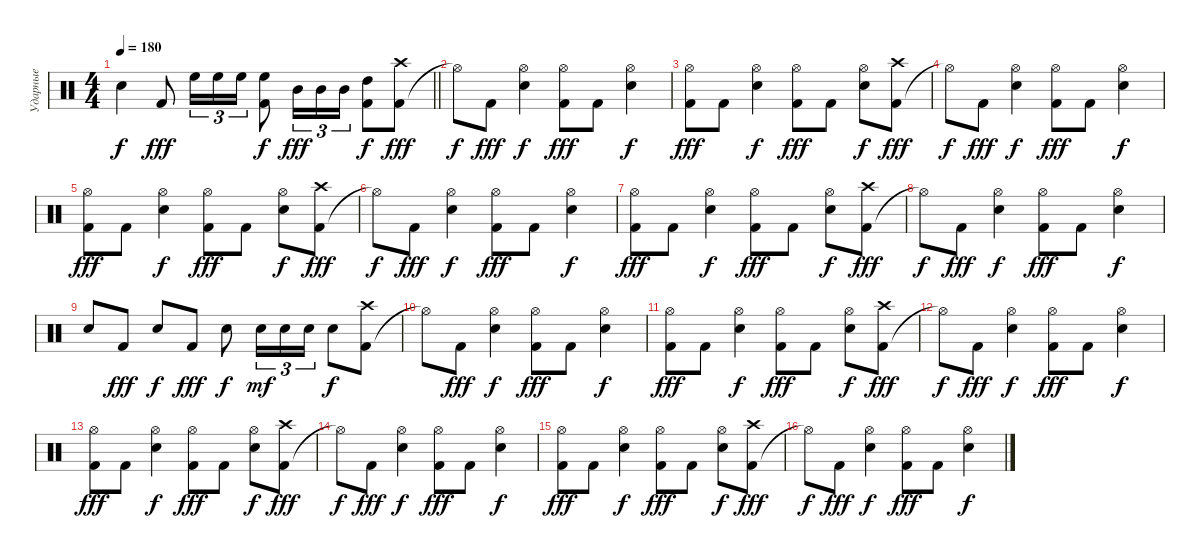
\track ("Ударные" "Ударные") {instrument percussion}
\staff
\articulation defaults
\ts (4 4)
\tempo 180
\clef neutral
\barLineRight lightlight
\ks c "Snare (hit) 2".4{dy f} "Kick (hit) 2".8{dy fff} "High Floor Tom (hit)".16{tu (3 2)} "High Floor Tom (hit)".16{tu (3 2)} "High Floor Tom (hit)".16{tu (3 2)}
("Kick (hit) 2" "High Floor Tom (hit)").8{dy f} "Mid Tom (hit)".16{tu (3 2) dy fff} "Mid Tom (hit)".16{tu (3 2)} "Mid Tom (hit)".16{tu (3 2)} ("Kick (hit) 2" "High Tom (hit)").8{dy f} ("Kick (hit) 2" "Crash high (hit)").8{dy fff} |
"Hi-Hat (open)"{t}.8{dy f} "Kick (hit) 2".8{dy fff} ("Snare (hit) 2" "Hi-Hat (open)").4{dy f} ("Kick (hit) 2" "Hi-Hat (open)").8{dy fff} "Kick (hit) 2".8 ("Snare (hit) 2" "Hi-Hat (open)").4{dy f} |
("Kick (hit) 2" "Hi-Hat (open)").8{dy fff} "Kick (hit) 2".8 ("Snare (hit) 2" "Hi-Hat (open)").4{dy f} ("Kick (hit) 2" "Hi-Hat (open)").8{dy fff} "Kick (hit) 2".8 ("Snare (hit) 2" "Hi-Hat (open)").8{dy f} ("Kick (hit) 2" "Crash high (hit)").8{dy fff} |
"Hi-Hat (open)"{t}.8{dy f} "Kick (hit) 2".8{dy fff} ("Snare (hit) 2" "Hi-Hat (open)").4{dy f} ("Kick (hit) 2" "Hi-Hat (open)").8{dy fff} "Kick (hit) 2".8 ("Snare (hit) 2" "Hi-Hat (open)").4{dy f} |
("Kick (hit) 2" "Hi-Hat (open)").8{dy fff} "Kick (hit) 2".8 ("Snare (hit) 2" "Hi-Hat (open)").4{dy f} ("Kick (hit) 2" "Hi-Hat (open)").8{dy fff} "Kick (hit) 2".8 ("Snare (hit) 2" "Hi-Hat (open)").8{dy f} ("Kick (hit) 2" "Crash high (hit)").8{dy fff} |
"Hi-Hat (open)"{t}.8{dy f} "Kick (hit) 2".8{dy fff} ("Snare (hit) 2" "Hi-Hat (open)").4{dy f} ("Kick (hit) 2" "Hi-Hat (open)").8{dy fff} "Kick (hit) 2".8 ("Snare (hit) 2" "Hi-Hat (open)").4{dy f} |
("Kick (hit) 2" "Hi-Hat (open)").8{dy fff} "Kick (hit) 2".8 ("Snare (hit) 2" "Hi-Hat (open)").4{dy f} ("Kick (hit) 2" "Hi-Hat (open)").8{dy fff} "Kick (hit) 2".8 ("Snare (hit) 2" "Hi-Hat (open)").8{dy f} ("Kick (hit) 2" "Crash high (hit)").8{dy fff} |
"Hi-Hat (open)"{t}.8{dy f} "Kick (hit) 2".8{dy fff} ("Snare (hit) 2" "Hi-Hat (open)").4{dy f} ("Kick (hit) 2" "Hi-Hat (open)").8{dy fff} "Kick (hit) 2".8 ("Snare (hit) 2" "Hi-Hat (open)").4{dy f} |
"Snare (hit) 2".8 "Kick (hit) 2".8{dy fff} "Snare (hit) 2".8{dy f} "Kick (hit) 2".8{dy fff} "Snare (hit) 2".8{dy f} "Snare (hit) 2".16{tu (3 2) dy mf} "Snare (hit) 2".16{tu (3 2)} "Snare (hit) 2".16{tu (3 2)} "Snare (hit) 2".8{dy f} ("Kick (hit) 2" "Crash high (hit)").8 |
"Hi-Hat (open)"{t}.8 "Kick (hit) 2".8{dy fff} ("Snare (hit) 2" "Hi-Hat (open)").4{dy f} ("Kick (hit) 2" "Hi-Hat (open)").8{dy fff} "Kick (hit) 2".8 ("Snare (hit) 2" "Hi-Hat (open)").4{dy f} |
("Kick (hit) 2" "Hi-Hat (open)").8{dy fff} "Kick (hit) 2".8 ("Snare (hit) 2" "Hi-Hat (open)").4{dy f} ("Kick (hit) 2" "Hi-Hat (open)").8{dy fff} "Kick (hit) 2".8 ("Snare (hit) 2" "Hi-Hat (open)").8{dy f} ("Kick (hit) 2" "Crash high (hit)").8{dy fff} |
"Hi-Hat (open)"{t}.8{dy f} "Kick (hit) 2".8{dy fff} ("Snare (hit) 2" "Hi-Hat (open)").4{dy f} ("Kick (hit) 2" "Hi-Hat (open)").8{dy fff} "Kick (hit) 2".8 ("Snare (hit) 2" "Hi-Hat (open)").4{dy f} |
("Kick (hit) 2" "Hi-Hat (open)").8{dy fff} "Kick (hit) 2".8 ("Snare (hit) 2" "Hi-Hat (open)").4{dy f} ("Kick (hit) 2" "Hi-Hat (open)").8{dy fff} "Kick (hit) 2".8 ("Snare (hit) 2" "Hi-Hat (open)").8{dy f} ("Kick (hit) 2" "Crash high (hit)").8{dy fff} |
"Hi-Hat (open)"{t}.8{dy f} "Kick (hit) 2".8{dy fff} ("Snare (hit) 2" "Hi-Hat (open)").4{dy f} ("Kick (hit) 2" "Hi-Hat (open)").8{dy fff} "Kick (hit) 2".8 ("Snare (hit) 2" "Hi-Hat (open)").4{dy f} |
("Kick (hit) 2" "Hi-Hat (open)").8{dy fff} "Kick (hit) 2".8 ("Snare (hit) 2" "Hi-Hat (open)").4{dy f} ("Kick (hit) 2" "Hi-Hat (open)").8{dy fff} "Kick (hit) 2".8 ("Snare (hit) 2" "Hi-Hat (open)").8{dy f} ("Kick (hit) 2" "Crash high (hit)").8{dy fff} |
"Hi-Hat (open)"{t}.8{dy f} "Kick (hit) 2".8{dy fff} ("Snare (hit) 2" "Hi-Hat (open)").4{dy f} ("Kick (hit) 2" "Hi-Hat (open)").8{dy fff} "Kick (hit) 2".8 ("Snare (hit) 2" "Hi-Hat (open)").4{dy f}
